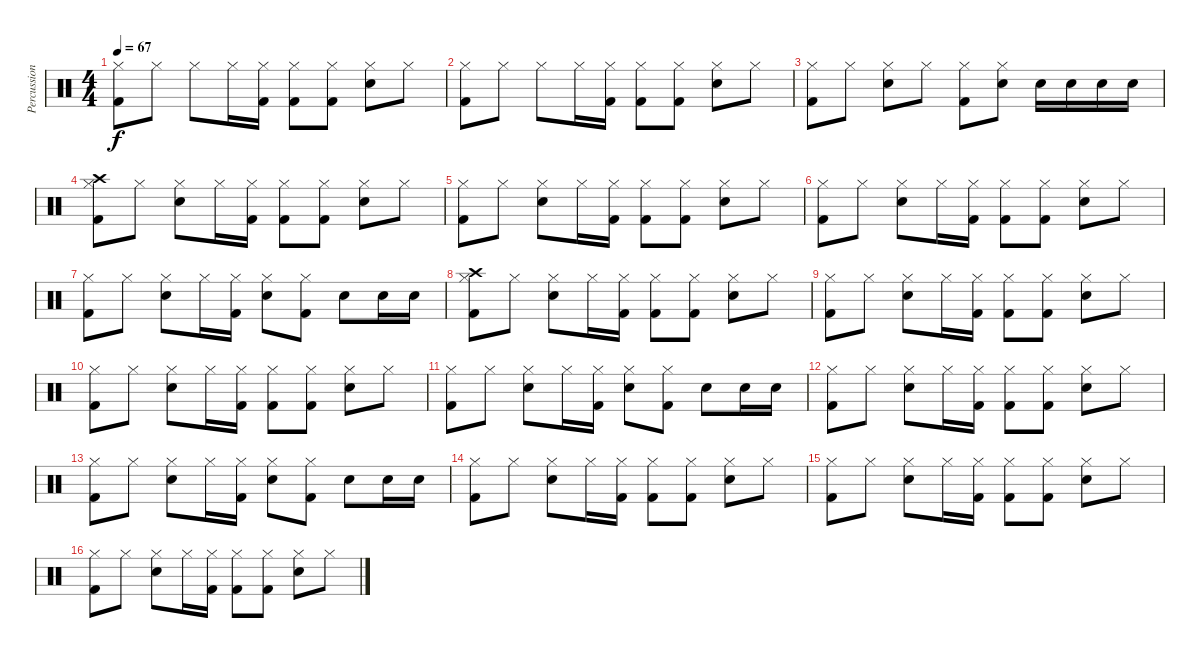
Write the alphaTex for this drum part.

\track ("Percussion" "Percussion") {instrument percussion}
\staff {score}
\articulation defaults
\ts (4 4)
\tempo 67
\clef neutral
\ks c
("Hi-Hat (closed)" "Kick (hit) 2").8{dy f} "Hi-Hat (closed)".8 "Hi-Hat (closed)".8 "Hi-Hat (closed)".16 ("Hi-Hat (closed)" "Kick (hit) 2").16 ("Hi-Hat (closed)" "Kick (hit) 2").8 ("Hi-Hat (closed)" "Kick (hit) 2").8 ("Hi-Hat (closed)" "Hand Clap (hit)").8 "Hi-Hat (closed)".8 |
("Hi-Hat (closed)" "Kick (hit) 2").8 "Hi-Hat (closed)".8 "Hi-Hat (closed)".8 "Hi-Hat (closed)".16 ("Hi-Hat (closed)" "Kick (hit) 2").16 ("Hi-Hat (closed)" "Kick (hit) 2").8 ("Hi-Hat (closed)" "Kick (hit) 2").8 ("Hi-Hat (closed)" "Hand Clap (hit)").8 "Hi-Hat (closed)".8 |
("Hi-Hat (closed)" "Kick (hit) 2").8 "Hi-Hat (closed)".8 ("Hand Clap (hit)" "Hi-Hat (closed)").8 "Hi-Hat (closed)".8 ("Hi-Hat (closed)" "Kick (hit) 2").8 ("Hi-Hat (closed)" "Snare (hit) 2").8 "Snare (hit) 2".16 "Snare (hit) 2".16 "Snare (hit) 2".16 "Snare (hit) 2".16 |
("Hi-Hat (closed)" "Crash high (hit)" "Kick (hit) 2").8 "Hi-Hat (closed)".8 ("Hi-Hat (closed)" "Snare (hit) 2").8 "Hi-Hat (closed)".16 ("Hi-Hat (closed)" "Kick (hit) 2").16 ("Hi-Hat (closed)" "Kick (hit) 2").8 ("Hi-Hat (closed)" "Kick (hit) 2").8 ("Hi-Hat (closed)" "Snare (hit) 2").8 "Hi-Hat (closed)".8 |
("Hi-Hat (closed)" "Kick (hit) 2").8 "Hi-Hat (closed)".8 ("Hi-Hat (closed)" "Snare (hit) 2").8 "Hi-Hat (closed)".16 ("Hi-Hat (closed)" "Kick (hit) 2").16 ("Hi-Hat (closed)" "Kick (hit) 2").8 ("Hi-Hat (closed)" "Kick (hit) 2").8 ("Hi-Hat (closed)" "Snare (hit) 2").8 "Hi-Hat (closed)".8 |
("Hi-Hat (closed)" "Kick (hit) 2").8 "Hi-Hat (closed)".8 ("Hi-Hat (closed)" "Snare (hit) 2").8 "Hi-Hat (closed)".16 ("Hi-Hat (closed)" "Kick (hit) 2").16 ("Hi-Hat (closed)" "Kick (hit) 2").8 ("Hi-Hat (closed)" "Kick (hit) 2").8 ("Hi-Hat (closed)" "Snare (hit) 2").8 "Hi-Hat (closed)".8 |
("Hi-Hat (closed)" "Kick (hit) 2").8 "Hi-Hat (closed)".8 ("Snare (hit) 2" "Hi-Hat (closed)").8 "Hi-Hat (closed)".16 ("Hi-Hat (closed)" "Kick (hit) 2").16 ("Hi-Hat (closed)" "Snare (hit) 2").8 ("Hi-Hat (closed)" "Kick (hit) 2").8 "Snare (hit) 2".8 "Snare (hit) 2".16 "Snare (hit) 2".16 |
("Hi-Hat (closed)" "Crash high (hit)" "Kick (hit) 2").8 "Hi-Hat (closed)".8 ("Hi-Hat (closed)" "Snare (hit) 2").8 "Hi-Hat (closed)".16 ("Hi-Hat (closed)" "Kick (hit) 2").16 ("Hi-Hat (closed)" "Kick (hit) 2").8 ("Hi-Hat (closed)" "Kick (hit) 2").8 ("Hi-Hat (closed)" "Snare (hit) 2").8 "Hi-Hat (closed)".8 |
("Hi-Hat (closed)" "Kick (hit) 2").8 "Hi-Hat (closed)".8 ("Hi-Hat (closed)" "Snare (hit) 2").8 "Hi-Hat (closed)".16 ("Hi-Hat (closed)" "Kick (hit) 2").16 ("Hi-Hat (closed)" "Kick (hit) 2").8 ("Hi-Hat (closed)" "Kick (hit) 2").8 ("Hi-Hat (closed)" "Snare (hit) 2").8 "Hi-Hat (closed)".8 |
("Hi-Hat (closed)" "Kick (hit) 2").8 "Hi-Hat (closed)".8 ("Hi-Hat (closed)" "Snare (hit) 2").8 "Hi-Hat (closed)".16 ("Hi-Hat (closed)" "Kick (hit) 2").16 ("Hi-Hat (closed)" "Kick (hit) 2").8 ("Hi-Hat (closed)" "Kick (hit) 2").8 ("Hi-Hat (closed)" "Snare (hit) 2").8 "Hi-Hat (closed)".8 |
("Hi-Hat (closed)" "Kick (hit) 2").8 "Hi-Hat (closed)".8 ("Snare (hit) 2" "Hi-Hat (closed)").8 "Hi-Hat (closed)".16 ("Hi-Hat (closed)" "Kick (hit) 2").16 ("Hi-Hat (closed)" "Snare (hit) 2").8 ("Hi-Hat (closed)" "Kick (hit) 2").8 "Snare (hit) 2".8 "Snare (hit) 2".16 "Snare (hit) 2".16 |
("Hi-Hat (closed)" "Kick (hit) 2").8 "Hi-Hat (closed)".8 ("Hi-Hat (closed)" "Snare (hit) 2").8 "Hi-Hat (closed)".16 ("Hi-Hat (closed)" "Kick (hit) 2").16 ("Hi-Hat (closed)" "Kick (hit) 2").8 ("Hi-Hat (closed)" "Kick (hit) 2").8 ("Hi-Hat (closed)" "Snare (hit) 2").8 "Hi-Hat (closed)".8 |
("Hi-Hat (closed)" "Kick (hit) 2").8 "Hi-Hat (closed)".8 ("Snare (hit) 2" "Hi-Hat (closed)").8 "Hi-Hat (closed)".16 ("Hi-Hat (closed)" "Kick (hit) 2").16 ("Hi-Hat (closed)" "Snare (hit) 2").8 ("Hi-Hat (closed)" "Kick (hit) 2").8 "Snare (hit) 2".8 "Snare (hit) 2".16 "Snare (hit) 2".16 |
("Hi-Hat (closed)" "Kick (hit) 2").8 "Hi-Hat (closed)".8 ("Hi-Hat (closed)" "Hand Clap (hit)").8 "Hi-Hat (closed)".16 ("Hi-Hat (closed)" "Kick (hit) 2").16 ("Hi-Hat (closed)" "Kick (hit) 2").8 ("Hi-Hat (closed)" "Kick (hit) 2").8 ("Hi-Hat (closed)" "Hand Clap (hit)").8 "Hi-Hat (closed)".8 |
("Hi-Hat (closed)" "Kick (hit) 2").8 "Hi-Hat (closed)".8 ("Hi-Hat (closed)" "Hand Clap (hit)").8 "Hi-Hat (closed)".16 ("Hi-Hat (closed)" "Kick (hit) 2").16 ("Hi-Hat (closed)" "Kick (hit) 2").8 ("Hi-Hat (closed)" "Kick (hit) 2").8 ("Hi-Hat (closed)" "Hand Clap (hit)").8 "Hi-Hat (closed)".8 |
("Hi-Hat (closed)" "Kick (hit) 2").8 "Hi-Hat (closed)".8 ("Hi-Hat (closed)" "Hand Clap (hit)").8 "Hi-Hat (closed)".16 ("Hi-Hat (closed)" "Kick (hit) 2").16 ("Hi-Hat (closed)" "Kick (hit) 2").8 ("Hi-Hat (closed)" "Kick (hit) 2").8 ("Hi-Hat (closed)" "Hand Clap (hit)").8 "Hi-Hat (closed)".8
